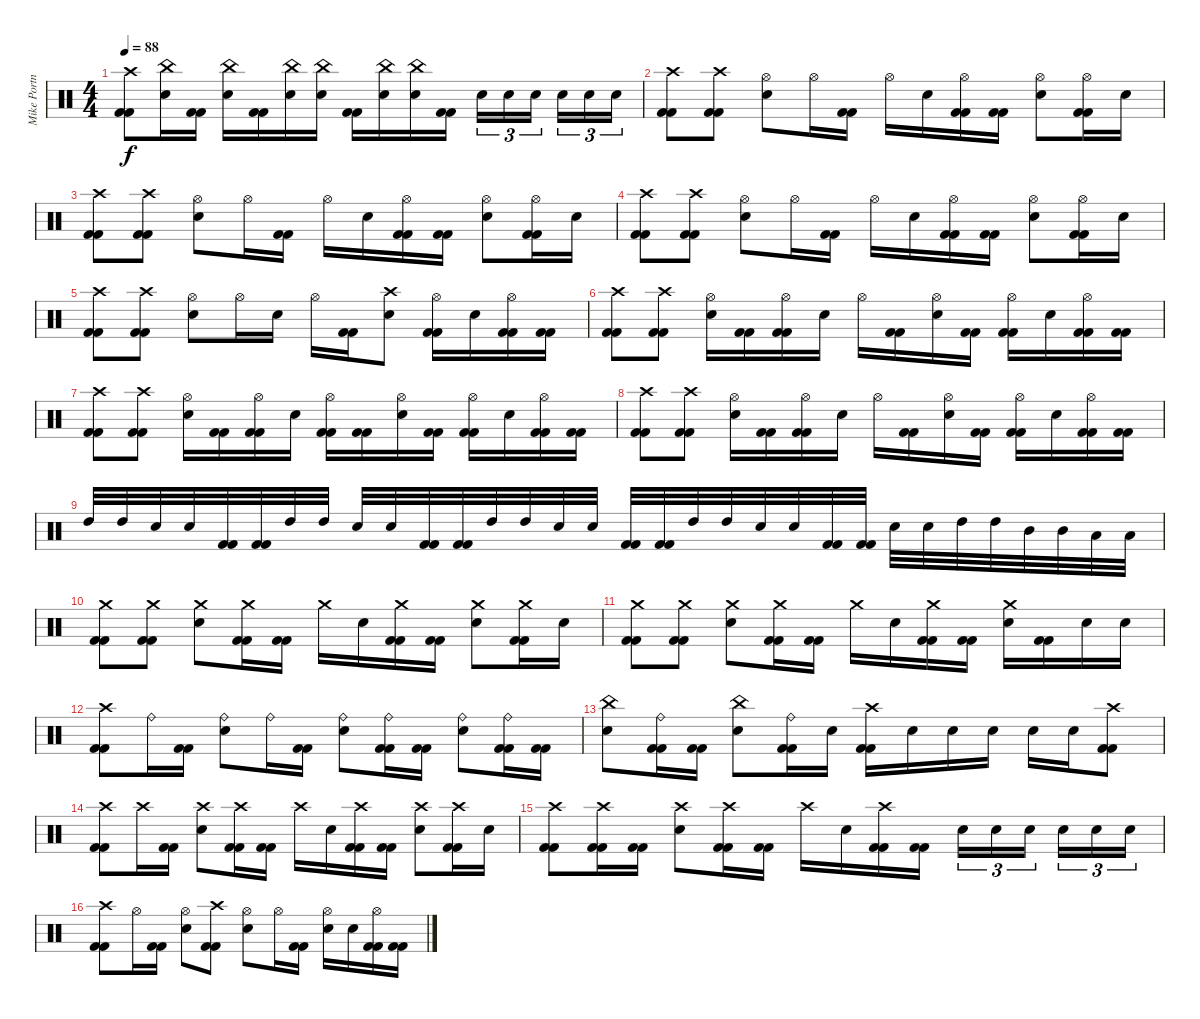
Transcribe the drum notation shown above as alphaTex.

\track ("Mike Portnoy" "Mike Portn") {instrument percussion}
\staff {score}
\articulation defaults
\ts (4 4)
\tempo 88
\clef neutral
\ks c
("Crash high (hit)" "Kick (hit) 2" "Kick (hit) 2").8{dy f} ("China (hit)" "Snare (hit) 2").16 ("Kick (hit) 2" "Kick (hit) 2").16 ("China (hit)" "Snare (hit) 2").16 ("Kick (hit) 2" "Kick (hit) 2").16 ("China (hit)" "Snare (hit) 2").16 ("China (hit)" "Snare (hit) 2").16 ("Kick (hit) 2" "Kick (hit) 2").16 ("China (hit)" "Snare (hit) 2").16 ("China (hit)" "Snare (hit) 2").16 ("Kick (hit) 2" "Kick (hit) 2").16 "Snare (hit) 2".16{tu (3 2)} "Snare (hit) 2".16{tu (3 2)} "Snare (hit) 2".16{tu (3 2)} "Snare (hit) 2".16{tu (3 2)} "Snare (hit) 2".16{tu (3 2)} "Snare (hit) 2".16{tu (3 2)} |
("Crash high (hit)" "Kick (hit) 2" "Kick (hit) 2").8 ("Crash high (hit)" "Kick (hit) 2" "Kick (hit) 2").8 ("Hi-Hat (open)" "Snare (hit) 2").8 "Hi-Hat (open)".16 ("Kick (hit) 2" "Kick (hit) 2").16 "Hi-Hat (open)".16 "Snare (hit) 2".16 ("Hi-Hat (open)" "Kick (hit) 2" "Kick (hit) 2").16 ("Kick (hit) 2" "Kick (hit) 2").16 ("Hi-Hat (open)" "Snare (hit) 2").8 ("Hi-Hat (open)" "Kick (hit) 2" "Kick (hit) 2").16 "Snare (hit) 2".16 |
("Crash high (hit)" "Kick (hit) 2" "Kick (hit) 2").8 ("Crash high (hit)" "Kick (hit) 2" "Kick (hit) 2").8 ("Hi-Hat (open)" "Snare (hit) 2").8 "Hi-Hat (open)".16 ("Kick (hit) 2" "Kick (hit) 2").16 "Hi-Hat (open)".16 "Snare (hit) 2".16 ("Hi-Hat (open)" "Kick (hit) 2" "Kick (hit) 2").16 ("Kick (hit) 2" "Kick (hit) 2").16 ("Hi-Hat (open)" "Snare (hit) 2").8 ("Hi-Hat (open)" "Kick (hit) 2" "Kick (hit) 2").16 "Snare (hit) 2".16 |
("Crash high (hit)" "Kick (hit) 2" "Kick (hit) 2").8 ("Crash high (hit)" "Kick (hit) 2" "Kick (hit) 2").8 ("Hi-Hat (open)" "Snare (hit) 2").8 "Hi-Hat (open)".16 ("Kick (hit) 2" "Kick (hit) 2").16 "Hi-Hat (open)".16 "Snare (hit) 2".16 ("Hi-Hat (open)" "Kick (hit) 2" "Kick (hit) 2").16 ("Kick (hit) 2" "Kick (hit) 2").16 ("Hi-Hat (open)" "Snare (hit) 2").8 ("Hi-Hat (open)" "Kick (hit) 2" "Kick (hit) 2").16 "Snare (hit) 2".16 |
("Crash high (hit)" "Kick (hit) 2" "Kick (hit) 2").8 ("Crash high (hit)" "Kick (hit) 2" "Kick (hit) 2").8 ("Hi-Hat (open)" "Snare (hit) 2").8 "Hi-Hat (open)".16 "Snare (hit) 2".16 "Hi-Hat (open)".16 ("Kick (hit) 2" "Kick (hit) 2").16 ("Crash high (hit)" "Snare (hit) 2").8 ("Hi-Hat (open)" "Kick (hit) 2" "Kick (hit) 2").16 "Snare (hit) 2".16 ("Hi-Hat (open)" "Kick (hit) 2" "Kick (hit) 2").16 ("Kick (hit) 2" "Kick (hit) 2").16 |
("Crash high (hit)" "Kick (hit) 2" "Kick (hit) 2").8 ("Crash high (hit)" "Kick (hit) 2" "Kick (hit) 2").8 ("Hi-Hat (open)" "Snare (hit) 2").16 ("Kick (hit) 2" "Kick (hit) 2").16 ("Hi-Hat (open)" "Kick (hit) 2" "Kick (hit) 2").16 "Snare (hit) 2".16 "Hi-Hat (open)".16 ("Kick (hit) 2" "Kick (hit) 2").16 ("Hi-Hat (open)" "Snare (hit) 2").16 ("Kick (hit) 2" "Kick (hit) 2").16 ("Hi-Hat (open)" "Kick (hit) 2" "Kick (hit) 2").16 "Snare (hit) 2".16 ("Hi-Hat (open)" "Kick (hit) 2" "Kick (hit) 2").16 ("Kick (hit) 2" "Kick (hit) 2").16 |
("Crash high (hit)" "Kick (hit) 2" "Kick (hit) 2").8 ("Crash high (hit)" "Kick (hit) 2" "Kick (hit) 2").8 ("Hi-Hat (open)" "Snare (hit) 2").16 ("Kick (hit) 2" "Kick (hit) 2").16 ("Hi-Hat (open)" "Kick (hit) 2" "Kick (hit) 2").16 "Snare (hit) 2".16 ("Hi-Hat (open)" "Kick (hit) 2" "Kick (hit) 2").16 ("Kick (hit) 2" "Kick (hit) 2").16 ("Hi-Hat (open)" "Snare (hit) 2").16 ("Kick (hit) 2" "Kick (hit) 2").16 ("Hi-Hat (open)" "Kick (hit) 2" "Kick (hit) 2").16 "Snare (hit) 2".16 ("Hi-Hat (open)" "Kick (hit) 2" "Kick (hit) 2").16 ("Kick (hit) 2" "Kick (hit) 2").16 |
("Crash high (hit)" "Kick (hit) 2" "Kick (hit) 2").8 ("Crash high (hit)" "Kick (hit) 2" "Kick (hit) 2").8 ("Hi-Hat (open)" "Snare (hit) 2").16 ("Kick (hit) 2" "Kick (hit) 2").16 ("Hi-Hat (open)" "Kick (hit) 2" "Kick (hit) 2").16 "Snare (hit) 2".16 "Hi-Hat (open)".16 ("Kick (hit) 2" "Kick (hit) 2").16 ("Hi-Hat (open)" "Snare (hit) 2").16 ("Kick (hit) 2" "Kick (hit) 2").16 ("Hi-Hat (open)" "Kick (hit) 2" "Kick (hit) 2").16 "Snare (hit) 2".16 ("Hi-Hat (open)" "Kick (hit) 2" "Kick (hit) 2").16 ("Kick (hit) 2" "Kick (hit) 2").16 |
"High Tom (hit)".32 "High Tom (hit)".32 "Snare (hit) 2".32 "Snare (hit) 2".32 ("Kick (hit) 2" "Kick (hit) 2").32 ("Kick (hit) 2" "Kick (hit) 2").32 "High Tom (hit)".32 "High Tom (hit)".32 "Snare (hit) 2".32 "Snare (hit) 2".32 ("Kick (hit) 2" "Kick (hit) 2").32 ("Kick (hit) 2" "Kick (hit) 2").32 "High Tom (hit)".32 "High Tom (hit)".32 "Snare (hit) 2".32 "Snare (hit) 2".32 ("Kick (hit) 2" "Kick (hit) 2").32 ("Kick (hit) 2" "Kick (hit) 2").32 "High Tom (hit)".32 "High Tom (hit)".32 "Snare (hit) 2".32 "Snare (hit) 2".32 ("Kick (hit) 2" "Kick (hit) 2").32 ("Kick (hit) 2" "Kick (hit) 2").32 "Snare (hit) 2".32 "Snare (hit) 2".32 "High Tom (hit)".32 "High Tom (hit)".32 "Mid Tom (hit)".32 "Mid Tom (hit)".32 "Low Tom (hit)".32 "Low Tom (hit)".32 |
("Crash medium (hit)" "Kick (hit) 2" "Kick (hit) 2").8 ("Crash medium (hit)" "Kick (hit) 2" "Kick (hit) 2").8 ("Crash medium (hit)" "Snare (hit) 2").8 ("Crash medium (hit)" "Kick (hit) 2" "Kick (hit) 2").16 ("Kick (hit) 2" "Kick (hit) 2").16 "Crash medium (hit)".16 "Snare (hit) 2".16 ("Crash medium (hit)" "Kick (hit) 2" "Kick (hit) 2").16 ("Kick (hit) 2" "Kick (hit) 2").16 ("Crash medium (hit)" "Snare (hit) 2").8 ("Crash medium (hit)" "Kick (hit) 2" "Kick (hit) 2").16 "Snare (hit) 2".16 |
("Crash medium (hit)" "Kick (hit) 2" "Kick (hit) 2").8 ("Crash medium (hit)" "Kick (hit) 2" "Kick (hit) 2").8 ("Crash medium (hit)" "Snare (hit) 2").8 ("Crash medium (hit)" "Kick (hit) 2" "Kick (hit) 2").16 ("Kick (hit) 2" "Kick (hit) 2").16 "Crash medium (hit)".16 "Snare (hit) 2".16 ("Crash medium (hit)" "Kick (hit) 2" "Kick (hit) 2").16 ("Kick (hit) 2" "Kick (hit) 2").16 ("Crash medium (hit)" "Snare (hit) 2").16 ("Kick (hit) 2" "Kick (hit) 2").16 "Snare (hit) 2".16 "Snare (hit) 2".16 |
("Crash high (hit)" "Kick (hit) 2" "Kick (hit) 2").8 "Ride (bell)".16 ("Kick (hit) 2" "Kick (hit) 2").16 ("Ride (bell)" "Snare (hit) 2").8 "Ride (bell)".16 ("Kick (hit) 2" "Kick (hit) 2").16 ("Ride (bell)" "Snare (hit) 2").8 ("Ride (bell)" "Kick (hit) 2" "Kick (hit) 2").16 ("Kick (hit) 2" "Kick (hit) 2").16 ("Ride (bell)" "Snare (hit) 2").8 ("Ride (bell)" "Kick (hit) 2" "Kick (hit) 2").16 ("Kick (hit) 2" "Kick (hit) 2").16 |
("China (hit)" "Snare (hit) 2").8 ("Ride (bell)" "Kick (hit) 2" "Kick (hit) 2").16 ("Kick (hit) 2" "Kick (hit) 2").16 ("China (hit)" "Snare (hit) 2").8 ("Ride (bell)" "Kick (hit) 2" "Kick (hit) 2").16 "Snare (hit) 2".16 ("Crash high (hit)" "Kick (hit) 2" "Kick (hit) 2").16 "Snare (hit) 2".16 "Snare (hit) 2".16 "Snare (hit) 2".16 "Snare (hit) 2".16 "Snare (hit) 2".16 ("Crash high (hit)" "Kick (hit) 2" "Kick (hit) 2").8 |
("Crash high (hit)" "Kick (hit) 2" "Kick (hit) 2").8 "Crash high (hit)".16 ("Kick (hit) 2" "Kick (hit) 2").16 ("Crash high (hit)" "Snare (hit) 2").8 ("Crash high (hit)" "Kick (hit) 2" "Kick (hit) 2").16 ("Kick (hit) 2" "Kick (hit) 2").16 "Crash high (hit)".16 "Snare (hit) 2".16 ("Crash high (hit)" "Kick (hit) 2" "Kick (hit) 2").16 ("Kick (hit) 2" "Kick (hit) 2").16 ("Crash high (hit)" "Snare (hit) 2").8 ("Crash high (hit)" "Kick (hit) 2" "Kick (hit) 2").16 "Snare (hit) 2".16 |
("Crash high (hit)" "Kick (hit) 2" "Kick (hit) 2").8 ("Crash high (hit)" "Kick (hit) 2" "Kick (hit) 2").16 ("Kick (hit) 2" "Kick (hit) 2").16 ("Crash high (hit)" "Snare (hit) 2").8 ("Crash high (hit)" "Kick (hit) 2" "Kick (hit) 2").16 ("Kick (hit) 2" "Kick (hit) 2").16 "Crash high (hit)".16 "Snare (hit) 2".16 ("Crash high (hit)" "Kick (hit) 2" "Kick (hit) 2").16 ("Kick (hit) 2" "Kick (hit) 2").16 "Snare (hit) 2".16{tu (3 2)} "Snare (hit) 2".16{tu (3 2)} "Snare (hit) 2".16{tu (3 2)} "Snare (hit) 2".16{tu (3 2)} "Snare (hit) 2".16{tu (3 2)} "Snare (hit) 2".16{tu (3 2)} |
("Crash high (hit)" "Kick (hit) 2" "Kick (hit) 2").8 "Hi-Hat (open)".16 ("Kick (hit) 2" "Kick (hit) 2").16 ("Hi-Hat (open)" "Snare (hit) 2").8 ("Crash high (hit)" "Kick (hit) 2" "Kick (hit) 2").8 ("Hi-Hat (open)" "Snare (hit) 2").8 "Hi-Hat (open)".16 ("Kick (hit) 2" "Kick (hit) 2").16 ("Hi-Hat (open)" "Snare (hit) 2").16 "Snare (hit) 2".16 ("Hi-Hat (open)" "Kick (hit) 2" "Kick (hit) 2").16 ("Kick (hit) 2" "Kick (hit) 2").16
